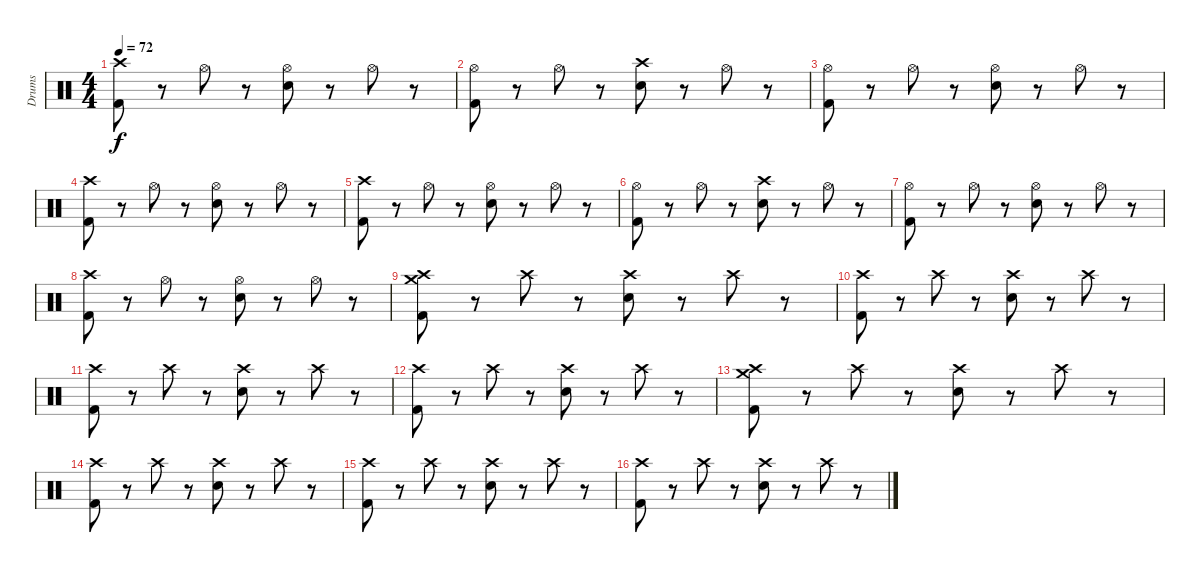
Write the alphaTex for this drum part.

\track ("Drums" "Drums") {instrument percussion}
\staff {score}
\articulation defaults
\ts (4 4)
\tempo 72
\clef neutral
\ks c
("Crash high (hit)" "Kick (hit) 2").8{dy f} r.8 "Hi-Hat (open)".8 r.8 ("Hi-Hat (open)" "Electric Snare (hit)").8 r.8 "Hi-Hat (open)".8 r.8 |
("Hi-Hat (open)" "Kick (hit) 2").8 r.8 "Hi-Hat (open)".8 r.8 ("Crash high (hit)" "Electric Snare (hit)").8 r.8 "Hi-Hat (open)".8 r.8 |
("Hi-Hat (open)" "Kick (hit) 2").8 r.8 "Hi-Hat (open)".8 r.8 ("Hi-Hat (open)" "Electric Snare (hit)").8 r.8 "Hi-Hat (open)".8 r.8 |
("Crash high (hit)" "Kick (hit) 2").8 r.8 "Hi-Hat (open)".8 r.8 ("Hi-Hat (open)" "Electric Snare (hit)").8 r.8 "Hi-Hat (open)".8 r.8 |
("Crash high (hit)" "Kick (hit) 2").8 r.8 "Hi-Hat (open)".8 r.8 ("Hi-Hat (open)" "Electric Snare (hit)").8 r.8 "Hi-Hat (open)".8 r.8 |
("Hi-Hat (open)" "Kick (hit) 2").8 r.8 "Hi-Hat (open)".8 r.8 ("Crash high (hit)" "Electric Snare (hit)").8 r.8 "Hi-Hat (open)".8 r.8 |
("Hi-Hat (open)" "Kick (hit) 2").8 r.8 "Hi-Hat (open)".8 r.8 ("Hi-Hat (open)" "Electric Snare (hit)").8 r.8 "Hi-Hat (open)".8 r.8 |
("Crash high (hit)" "Kick (hit) 2").8 r.8 "Hi-Hat (open)".8 r.8 ("Hi-Hat (open)" "Electric Snare (hit)").8 r.8 "Hi-Hat (open)".8 r.8 |
("Crash medium (hit)" "Crash high (hit)" "Kick (hit) 2").8 r.8 "Crash high (hit)".8 r.8 ("Crash high (hit)" "Electric Snare (hit)").8 r.8 "Crash high (hit)".8 r.8 |
("Crash high (hit)" "Kick (hit) 2").8 r.8 "Crash high (hit)".8 r.8 ("Crash high (hit)" "Electric Snare (hit)").8 r.8 "Crash high (hit)".8 r.8 |
("Crash high (hit)" "Kick (hit) 2").8 r.8 "Crash high (hit)".8 r.8 ("Crash high (hit)" "Electric Snare (hit)").8 r.8 "Crash high (hit)".8 r.8 |
("Crash high (hit)" "Kick (hit) 2").8 r.8 "Crash high (hit)".8 r.8 ("Crash high (hit)" "Electric Snare (hit)").8 r.8 "Crash high (hit)".8 r.8 |
("Crash medium (hit)" "Crash high (hit)" "Kick (hit) 2").8 r.8 "Crash high (hit)".8 r.8 ("Crash high (hit)" "Electric Snare (hit)").8 r.8 "Crash high (hit)".8 r.8 |
("Crash high (hit)" "Kick (hit) 2").8 r.8 "Crash high (hit)".8 r.8 ("Crash high (hit)" "Electric Snare (hit)").8 r.8 "Crash high (hit)".8 r.8 |
("Crash high (hit)" "Kick (hit) 2").8 r.8 "Crash high (hit)".8 r.8 ("Crash high (hit)" "Electric Snare (hit)").8 r.8 "Crash high (hit)".8 r.8 |
("Crash high (hit)" "Kick (hit) 2").8 r.8 "Crash high (hit)".8 r.8 ("Crash high (hit)" "Electric Snare (hit)").8 r.8 "Crash high (hit)".8 r.8
